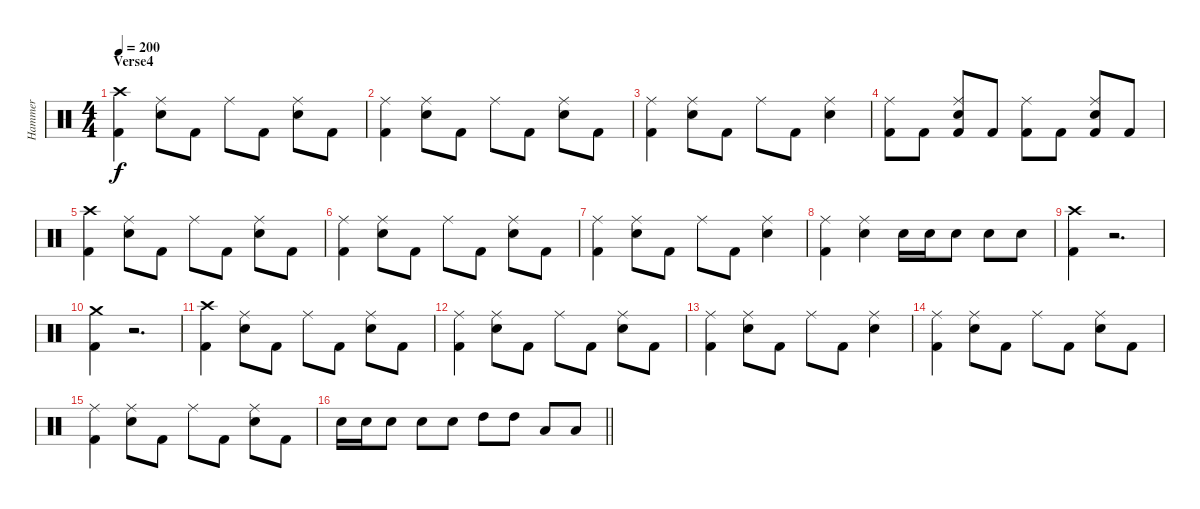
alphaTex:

\track ("Hammer" "Hammer") {instrument percussion}
\staff {score}
\articulation defaults
\ts (4 4)
\section ("" "Verse4")
\tempo 200
\clef neutral
\ks c
("Kick (hit) 2" "Crash high (hit)").4{dy f} ("Ride (middle)" "Snare (hit) 2").8 "Kick (hit) 2".8 "Ride (middle)".8 "Kick (hit) 2".8 ("Ride (middle)" "Snare (hit) 2").8 "Kick (hit) 2".8 |
("Kick (hit) 2" "Ride (middle)").4 ("Ride (middle)" "Snare (hit) 2").8 "Kick (hit) 2".8 "Ride (middle)".8 "Kick (hit) 2".8 ("Ride (middle)" "Snare (hit) 2").8 "Kick (hit) 2".8 |
("Kick (hit) 2" "Ride (middle)").4 ("Snare (hit) 2" "Ride (middle)").8 "Kick (hit) 2".8 "Ride (middle)".8 "Kick (hit) 2".8 ("Ride (middle)" "Snare (hit) 2").4 |
("Kick (hit) 2" "Ride (middle)").8 "Kick (hit) 2".8 ("Ride (middle)" "Kick (hit) 2" "Snare (hit) 2").8 "Kick (hit) 2".8 ("Kick (hit) 2" "Ride (middle)").8 "Kick (hit) 2".8 ("Kick (hit) 2" "Snare (hit) 2" "Ride (middle)").8 "Kick (hit) 2".8 |
("Kick (hit) 2" "Crash high (hit)").4 ("Ride (middle)" "Snare (hit) 2").8 "Kick (hit) 2".8 "Ride (middle)".8 "Kick (hit) 2".8 ("Ride (middle)" "Snare (hit) 2").8 "Kick (hit) 2".8 |
("Kick (hit) 2" "Ride (middle)").4 ("Ride (middle)" "Snare (hit) 2").8 "Kick (hit) 2".8 "Ride (middle)".8 "Kick (hit) 2".8 ("Ride (middle)" "Snare (hit) 2").8 "Kick (hit) 2".8 |
("Kick (hit) 2" "Ride (middle)").4 ("Snare (hit) 2" "Ride (middle)").8 "Kick (hit) 2".8 "Ride (middle)".8 "Kick (hit) 2".8 ("Ride (middle)" "Snare (hit) 2").4 |
("Kick (hit) 2" "Ride (middle)").4 ("Snare (hit) 2" "Ride (middle)").4 "Snare (hit) 2".16 "Snare (hit) 2".16 "Snare (hit) 2".8 "Snare (hit) 2".8 "Snare (hit) 2".8 |
("Crash high (hit)" "Kick (hit) 2").4 r.2{d} |
("Crash medium (hit)" "Kick (hit) 2").4 r.2{d} |
("Kick (hit) 2" "Crash high (hit)").4 ("Ride (middle)" "Snare (hit) 2").8 "Kick (hit) 2".8 "Ride (middle)".8 "Kick (hit) 2".8 ("Ride (middle)" "Snare (hit) 2").8 "Kick (hit) 2".8 |
("Kick (hit) 2" "Ride (middle)").4 ("Ride (middle)" "Snare (hit) 2").8 "Kick (hit) 2".8 "Ride (middle)".8 "Kick (hit) 2".8 ("Ride (middle)" "Snare (hit) 2").8 "Kick (hit) 2".8 |
("Kick (hit) 2" "Ride (middle)").4 ("Snare (hit) 2" "Ride (middle)").8 "Kick (hit) 2".8 "Ride (middle)".8 "Kick (hit) 2".8 ("Ride (middle)" "Snare (hit) 2").4 |
("Kick (hit) 2" "Ride (middle)").4 ("Ride (middle)" "Snare (hit) 2").8 "Kick (hit) 2".8 "Ride (middle)".8 "Kick (hit) 2".8 ("Ride (middle)" "Snare (hit) 2").8 "Kick (hit) 2".8 |
("Kick (hit) 2" "Ride (middle)").4 ("Ride (middle)" "Snare (hit) 2").8 "Kick (hit) 2".8 "Ride (middle)".8 "Kick (hit) 2".8 ("Ride (middle)" "Snare (hit) 2").8 "Kick (hit) 2".8 |
\barLineRight lightlight "Snare (hit) 2".16 "Snare (hit) 2".16 "Snare (hit) 2".8 "Snare (hit) 2".8 "Snare (hit) 2".8 "High Tom (hit)".8 "High Tom (hit)".8 "Low Tom (hit)".8 "Low Tom (hit)".8
